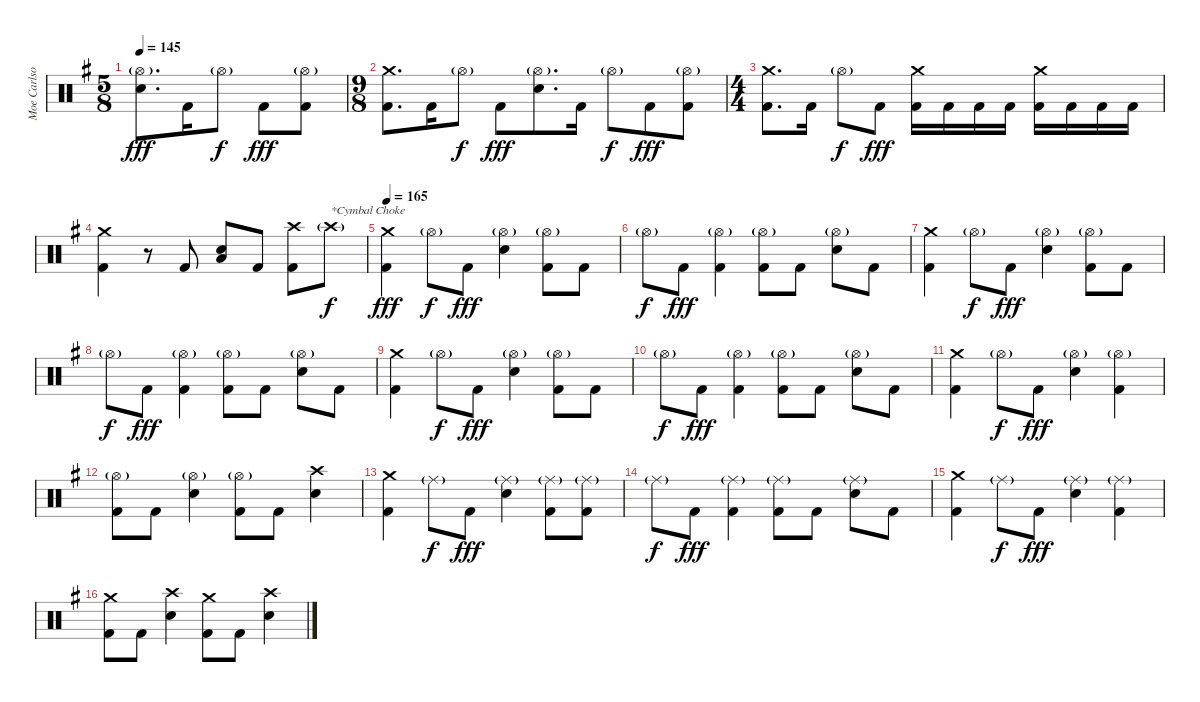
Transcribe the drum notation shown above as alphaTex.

\track ("Moe Carlson" "Moe Carlso") {instrument percussion}
\staff {score}
\articulation defaults
\ts (5 8)
\tempo 145
\clef neutral
\ks g
("Hi-Hat (open)"{g} "Electric Snare (hit)").8{d dy fff} "Kick (hit) 2".16 "Hi-Hat (open)"{g}.8{dy f} "Kick (hit) 2".8{dy fff} ("Hi-Hat (open)"{g} "Kick (hit) 2").8 |
\ts (9 8)
("Crash medium (hit)" "Kick (hit) 2").8{d} "Kick (hit) 2".16 "Hi-Hat (open)"{g}.8{dy f} "Kick (hit) 2".8{dy fff} ("Hi-Hat (open)"{g} "Electric Snare (hit)").8{d} "Kick (hit) 2".16 "Hi-Hat (open)"{g}.8{dy f} "Kick (hit) 2".8{dy fff} ("Hi-Hat (open)"{g} "Kick (hit) 2").8 |
\ts (4 4)
("Crash medium (hit)" "Kick (hit) 2").8{d} "Kick (hit) 2".16 "Hi-Hat (open)"{g}.8{dy f} "Kick (hit) 2".8{dy fff} ("Crash medium (hit)" "Kick (hit) 2").16 "Kick (hit) 2".16 "Kick (hit) 2".16 "Kick (hit) 2".16 ("Crash medium (hit)" "Kick (hit) 2").16 "Kick (hit) 2".16 "Kick (hit) 2".16 "Kick (hit) 2".16 |
("Crash medium (hit)" "Kick (hit) 2").4 r.8 "Kick (hit) 2".8 ("Electric Snare (hit)" "Low Floor Tom (hit)").8 "Kick (hit) 2".8 ("Crash high (hit)" "Kick (hit) 2").8 "Crash high (hit)"{g}.8{txt "*Cymbal Choke" dy f volume 0} |
\tempo 165
("Crash medium (hit)" "Kick (hit) 2").4{dy fff volume 16} "Hi-Hat (open)"{g}.8{dy f} "Kick (hit) 2".8{dy fff} ("Hi-Hat (open)"{g} "Electric Snare (hit)").4 ("Hi-Hat (open)"{g} "Kick (hit) 2").8 "Kick (hit) 2".8 |
"Hi-Hat (open)"{g}.8{dy f} "Kick (hit) 2".8{dy fff} ("Hi-Hat (open)"{g} "Kick (hit) 2").4 ("Hi-Hat (open)"{g} "Kick (hit) 2").8 "Kick (hit) 2".8 ("Hi-Hat (open)"{g} "Electric Snare (hit)").8 "Kick (hit) 2".8 |
("Crash medium (hit)" "Kick (hit) 2").4 "Hi-Hat (open)"{g}.8{dy f} "Kick (hit) 2".8{dy fff} ("Hi-Hat (open)"{g} "Electric Snare (hit)").4 ("Hi-Hat (open)"{g} "Kick (hit) 2").8 "Kick (hit) 2".8 |
"Hi-Hat (open)"{g}.8{dy f} "Kick (hit) 2".8{dy fff} ("Hi-Hat (open)"{g} "Kick (hit) 2").4 ("Hi-Hat (open)"{g} "Kick (hit) 2").8 "Kick (hit) 2".8 ("Hi-Hat (open)"{g} "Electric Snare (hit)").8 "Kick (hit) 2".8 |
("Crash medium (hit)" "Kick (hit) 2").4 "Hi-Hat (open)"{g}.8{dy f} "Kick (hit) 2".8{dy fff} ("Hi-Hat (open)"{g} "Electric Snare (hit)").4 ("Hi-Hat (open)"{g} "Kick (hit) 2").8 "Kick (hit) 2".8 |
"Hi-Hat (open)"{g}.8{dy f} "Kick (hit) 2".8{dy fff} ("Hi-Hat (open)"{g} "Kick (hit) 2").4 ("Hi-Hat (open)"{g} "Kick (hit) 2").8 "Kick (hit) 2".8 ("Hi-Hat (open)"{g} "Electric Snare (hit)").8 "Kick (hit) 2".8 |
("Crash medium (hit)" "Kick (hit) 2").4 "Hi-Hat (open)"{g}.8{dy f} "Kick (hit) 2".8{dy fff} ("Hi-Hat (open)"{g} "Electric Snare (hit)").4 ("Hi-Hat (open)"{g} "Kick (hit) 2").4 |
("Hi-Hat (open)"{g} "Kick (hit) 2").8 "Kick (hit) 2".8 ("Hi-Hat (open)"{g} "Electric Snare (hit)").4 ("Hi-Hat (open)"{g} "Kick (hit) 2").8 "Kick (hit) 2".8 ("Crash high (hit)" "Electric Snare (hit)").4 |
("Crash medium (hit)" "Kick (hit) 2").4 "Ride (middle)"{g}.8{dy f} "Kick (hit) 2".8{dy fff} ("Ride (middle)"{g} "Electric Snare (hit)").4 ("Ride (middle)"{g} "Kick (hit) 2").8 ("Ride (middle)"{g} "Kick (hit) 2").8 |
"Ride (middle)"{g}.8{dy f} "Kick (hit) 2".8{dy fff} ("Ride (middle)"{g} "Kick (hit) 2").4 ("Ride (middle)"{g} "Kick (hit) 2").8 "Kick (hit) 2".8 ("Ride (middle)"{g} "Electric Snare (hit)").8 "Kick (hit) 2".8 |
("Crash medium (hit)" "Kick (hit) 2").4 "Ride (middle)"{g}.8{dy f} "Kick (hit) 2".8{dy fff} ("Ride (middle)"{g} "Electric Snare (hit)").4 ("Ride (middle)"{g} "Kick (hit) 2").4 |
("Crash medium (hit)" "Kick (hit) 2").8 "Kick (hit) 2".8 ("Crash high (hit)" "Electric Snare (hit)").4 ("Crash medium (hit)" "Kick (hit) 2").8 "Kick (hit) 2".8 ("Crash high (hit)" "Electric Snare (hit)").4
